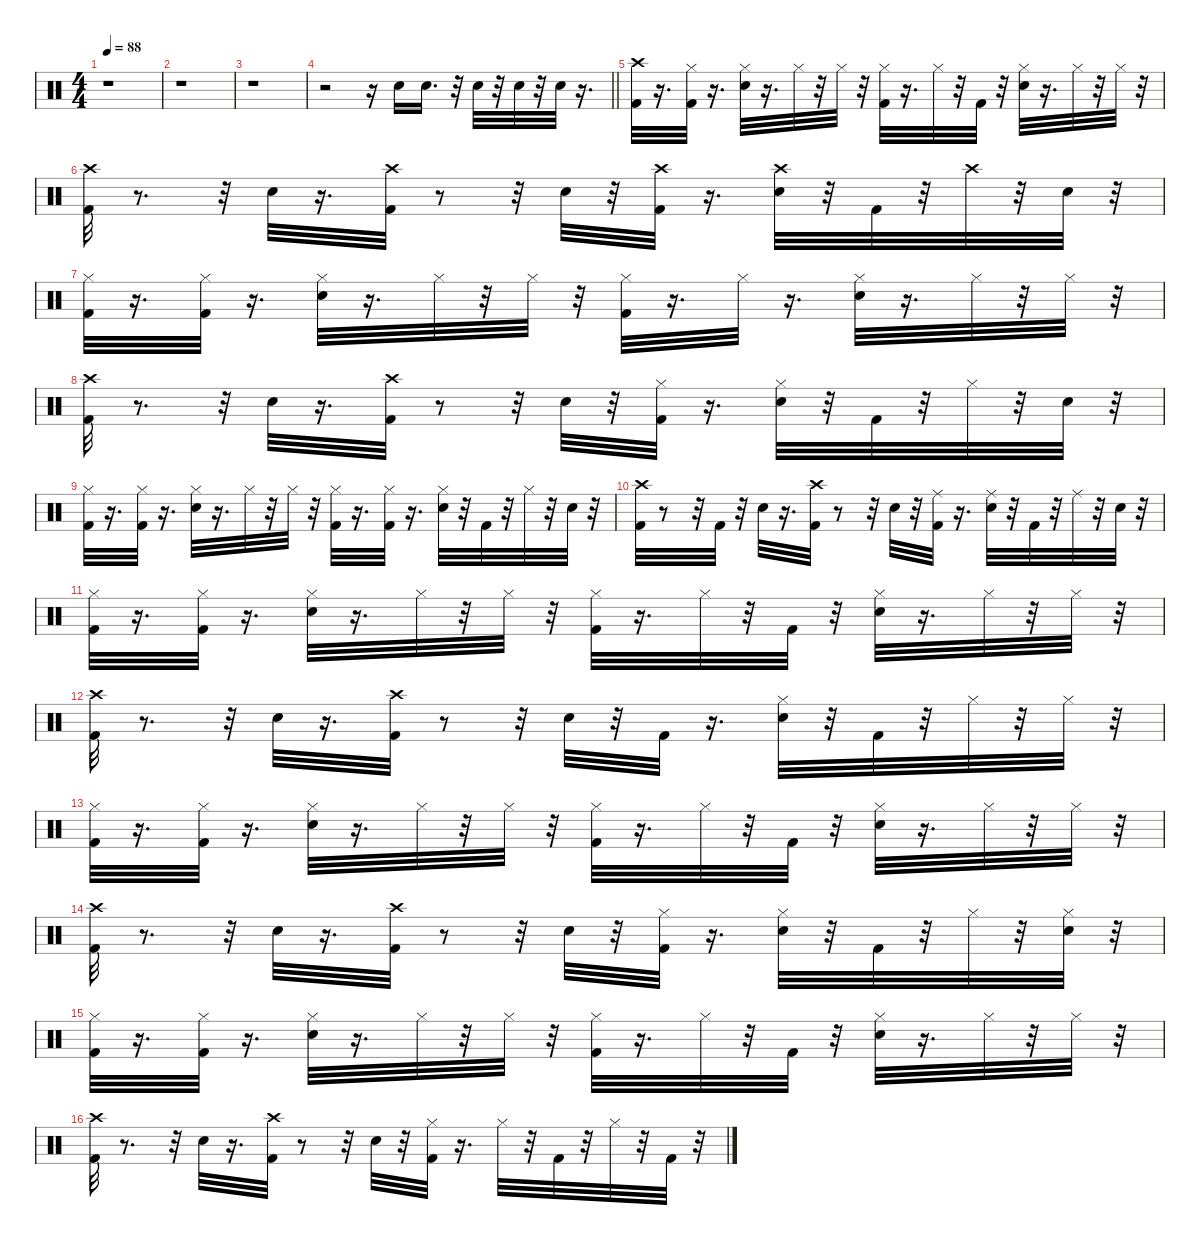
\defaultSystemsLayout 4
\hideDynamics
\bracketExtendMode nobrackets
\singleTrackTrackNamePolicy hidden
\multiTrackTrackNamePolicy hidden
\firstSystemTrackNameMode fullname
\firstSystemTrackNameOrientation horizontal
\otherSystemsTrackNameOrientation horizontal
\track ("Bonzo" "drm.") {instrument percussion}
\staff {score}
\articulation defaults
\ts (4 4)
\tempo 88
\clef neutral
\ks c
r.1{dy fff beam Down} |
r.1{beam Down} |
r.1{beam Down} |
\barLineRight lightlight
r.2{beam Down} r.16{beam Down} "Snare (hit) 2".16{beam Down} "Snare (hit) 2".16{d beam Down} r.32{beam Down} "Snare (hit) 2".32{beam Down} r.32{beam Down} "Snare (hit) 2".32{beam Down} r.32{beam Down} "Snare (hit) 2".32{beam Down} r.16{d beam Down} |
("Kick (hit) 2" "Crash high (hit)").32{beam Down} r.16{d beam Down} ("Kick (hit) 2" "Hi-Hat (closed)").32{beam Down} r.16{d beam Down} ("Snare (hit) 2" "Hi-Hat (closed)").32{beam Down} r.16{d beam Down} "Hi-Hat (closed)".32{dy ff beam Down} r.32{beam Down} "Hi-Hat (closed)".32{beam Down} r.32{beam Down} ("Kick (hit) 2" "Hi-Hat (closed)").32{dy fff beam Down} r.16{d beam Down} "Hi-Hat (closed)".32{dy ff beam Down} r.32{beam Down} "Kick (hit) 2".32{dy fff beam Down} r.32{beam Down} ("Snare (hit) 2" "Hi-Hat (closed)").32{beam Down} r.16{d beam Down} "Hi-Hat (closed)".32{dy ff beam Down} r.32{beam Down} "Hi-Hat (closed)".32{beam Down} r.32{beam Down} |
("Kick (hit) 2" "Crash high (hit)").32{dy fff beam Down} r.8{d beam Down} r.32{beam Down} "Snare (hit) 2".32{beam Down} r.16{d beam Down} ("Kick (hit) 2" "Crash high (hit)").32{beam Down} r.8{beam Down} r.32{beam Down} "Snare (hit) 2".32{beam Down} r.32{beam Down} ("Kick (hit) 2" "Crash high (hit)").32{beam Down} r.16{d beam Down} ("Snare (hit) 2" "Crash high (hit)").32{beam Down} r.32{beam Down} "Kick (hit) 2".32{beam Down} r.32{beam Down} "Crash high (hit)".32{dy ff beam Down} r.32{beam Down} "Snare (hit) 2".32{dy fff beam Down} r.32{beam Down} |
("Kick (hit) 2" "Hi-Hat (closed)").32{beam Down} r.16{d beam Down} ("Kick (hit) 2" "Hi-Hat (closed)").32{beam Down} r.16{d beam Down} ("Snare (hit) 2" "Hi-Hat (closed)").32{beam Down} r.16{d beam Down} "Hi-Hat (closed)".32{dy ff beam Down} r.32{beam Down} "Hi-Hat (closed)".32{beam Down} r.32{beam Down} ("Kick (hit) 2" "Hi-Hat (closed)").32{dy fff beam Down} r.16{d beam Down} "Hi-Hat (closed)".32{dy ff beam Down} r.16{d beam Down} ("Snare (hit) 2" "Hi-Hat (closed)").32{dy fff beam Down} r.16{d beam Down} "Hi-Hat (closed)".32{dy ff beam Down} r.32{beam Down} "Hi-Hat (closed)".32{beam Down} r.32{beam Down} |
("Kick (hit) 2" "Crash high (hit)").32{dy fff beam Down} r.8{d beam Down} r.32{beam Down} "Snare (hit) 2".32{beam Down} r.16{d beam Down} ("Kick (hit) 2" "Crash high (hit)").32{beam Down} r.8{beam Down} r.32{beam Down} "Snare (hit) 2".32{beam Down} r.32{beam Down} ("Kick (hit) 2" "Hi-Hat (closed)").32{beam Down} r.16{d beam Down} ("Snare (hit) 2" "Hi-Hat (closed)").32{beam Down} r.32{beam Down} "Kick (hit) 2".32{beam Down} r.32{beam Down} "Hi-Hat (closed)".32{dy ff beam Down} r.32{beam Down} "Snare (hit) 2".32{dy fff beam Down} r.32{beam Down} |
("Kick (hit) 2" "Hi-Hat (closed)").32{beam Down} r.16{d beam Down} ("Kick (hit) 2" "Hi-Hat (closed)").32{beam Down} r.16{d beam Down} ("Snare (hit) 2" "Hi-Hat (closed)").32{beam Down} r.16{d beam Down} "Hi-Hat (closed)".32{dy ff beam Down} r.32{beam Down} "Hi-Hat (closed)".32{beam Down} r.32{beam Down} ("Kick (hit) 2" "Hi-Hat (closed)").32{dy fff beam Down} r.16{d beam Down} ("Kick (hit) 2" "Hi-Hat (closed)").32{beam Down} r.16{d beam Down} ("Snare (hit) 2" "Hi-Hat (closed)").32{beam Down} r.32{beam Down} "Kick (hit) 2".32{beam Down} r.32{beam Down} "Hi-Hat (closed)".32{dy ff beam Down} r.32{beam Down} "Snare (hit) 2".32{dy fff beam Down} r.32{beam Down} |
("Kick (hit) 2" "Crash high (hit)").32{beam Down} r.8{beam Down} r.32{beam Down} "Kick (hit) 2".32{beam Down} r.32{beam Down} "Snare (hit) 2".32{beam Down} r.16{d beam Down} ("Kick (hit) 2" "Crash high (hit)").32{beam Down} r.8{beam Down} r.32{beam Down} "Snare (hit) 2".32{beam Down} r.32{beam Down} ("Kick (hit) 2" "Ride (middle)").32{beam Down} r.16{d beam Down} ("Snare (hit) 2" "Ride (middle)").32{beam Down} r.32{beam Down} "Kick (hit) 2".32{beam Down} r.32{beam Down} "Ride (middle)".32{dy ff beam Down} r.32{beam Down} "Snare (hit) 2".32{dy fff beam Down} r.32{beam Down} |
("Kick (hit) 2" "Hi-Hat (closed)").32{beam Down} r.16{d beam Down} ("Kick (hit) 2" "Hi-Hat (closed)").32{beam Down} r.16{d beam Down} ("Snare (hit) 2" "Hi-Hat (closed)").32{beam Down} r.16{d beam Down} "Hi-Hat (closed)".32{dy ff beam Down} r.32{beam Down} "Hi-Hat (closed)".32{beam Down} r.32{beam Down} ("Kick (hit) 2" "Hi-Hat (closed)").32{dy fff beam Down} r.16{d beam Down} "Hi-Hat (closed)".32{dy ff beam Down} r.32{beam Down} "Kick (hit) 2".32{dy fff beam Down} r.32{beam Down} ("Snare (hit) 2" "Hi-Hat (closed)").32{beam Down} r.16{d beam Down} "Hi-Hat (closed)".32{dy ff beam Down} r.32{beam Down} "Hi-Hat (closed)".32{beam Down} r.32{beam Down} |
("Kick (hit) 2" "Crash high (hit)").32{dy fff beam Down} r.8{d beam Down} r.32{beam Down} "Snare (hit) 2".32{beam Down} r.16{d beam Down} ("Kick (hit) 2" "Crash high (hit)").32{beam Down} r.8{beam Down} r.32{beam Down} "Snare (hit) 2".32{beam Up} r.32{beam Up} "Kick (hit) 2".32{beam Up} r.16{d beam Up} ("Snare (hit) 2" "Hi-Hat (closed)").32{beam Down} r.32{beam Down} "Kick (hit) 2".32{beam Down} r.32{beam Down} "Hi-Hat (closed)".32{dy ff beam Down} r.32{beam Down} "Hi-Hat (closed)".32{beam Down} r.32{beam Down} |
("Kick (hit) 2" "Hi-Hat (closed)").32{dy fff beam Down} r.16{d beam Down} ("Kick (hit) 2" "Hi-Hat (closed)").32{beam Down} r.16{d beam Down} ("Snare (hit) 2" "Hi-Hat (closed)").32{beam Down} r.16{d beam Down} "Hi-Hat (closed)".32{dy ff beam Down} r.32{beam Down} "Hi-Hat (closed)".32{beam Down} r.32{beam Down} ("Kick (hit) 2" "Hi-Hat (closed)").32{dy fff beam Down} r.16{d beam Down} "Hi-Hat (closed)".32{dy ff beam Down} r.32{beam Down} "Kick (hit) 2".32{dy fff beam Down} r.32{beam Down} ("Snare (hit) 2" "Hi-Hat (closed)").32{beam Down} r.16{d beam Down} "Hi-Hat (closed)".32{dy ff beam Down} r.32{beam Down} "Hi-Hat (closed)".32{beam Down} r.32{beam Down} |
("Kick (hit) 2" "Crash high (hit)").32{dy fff beam Down} r.8{d beam Down} r.32{beam Down} "Snare (hit) 2".32{beam Down} r.16{d beam Down} ("Kick (hit) 2" "Crash high (hit)").32{beam Down} r.8{beam Down} r.32{beam Down} "Snare (hit) 2".32{beam Down} r.32{beam Down} ("Kick (hit) 2" "Hi-Hat (closed)").32{beam Down} r.16{d beam Down} ("Snare (hit) 2" "Hi-Hat (closed)").32{beam Down} r.32{beam Down} "Kick (hit) 2".32{beam Down} r.32{beam Down} "Hi-Hat (closed)".32{dy ff beam Down} r.32{beam Down} ("Snare (hit) 2" "Hi-Hat (closed)").32{dy fff beam Down} r.32{beam Down} |
("Kick (hit) 2" "Hi-Hat (closed)").32{beam Down} r.16{d beam Down} ("Kick (hit) 2" "Hi-Hat (closed)").32{beam Down} r.16{d beam Down} ("Snare (hit) 2" "Hi-Hat (closed)").32{beam Down} r.16{d beam Down} "Hi-Hat (closed)".32{dy ff beam Down} r.32{beam Down} "Hi-Hat (closed)".32{beam Down} r.32{beam Down} ("Kick (hit) 2" "Hi-Hat (closed)").32{dy fff beam Down} r.16{d beam Down} "Hi-Hat (closed)".32{dy ff beam Down} r.32{beam Down} "Kick (hit) 2".32{dy fff beam Down} r.32{beam Down} ("Snare (hit) 2" "Hi-Hat (closed)").32{beam Down} r.16{d beam Down} "Hi-Hat (closed)".32{dy ff beam Down} r.32{beam Down} "Hi-Hat (closed)".32{beam Down} r.32{beam Down} |
("Kick (hit) 2" "Crash high (hit)").32{dy fff beam Down} r.8{d beam Down} r.32{beam Down} "Snare (hit) 2".32{beam Down} r.16{d beam Down} ("Kick (hit) 2" "Crash high (hit)").32{beam Down} r.8{beam Down} r.32{beam Down} "Snare (hit) 2".32{beam Down} r.32{beam Down} ("Kick (hit) 2" "Hi-Hat (closed)").32{beam Down} r.16{d beam Down} "Hi-Hat (closed)".32{dy ff beam Down} r.32{beam Down} "Kick (hit) 2".32{dy fff beam Down} r.32{beam Down} "Hi-Hat (closed)".32{dy ff beam Down} r.32{beam Down} "Kick (hit) 2".32{dy fff beam Down} r.32{beam Down}
